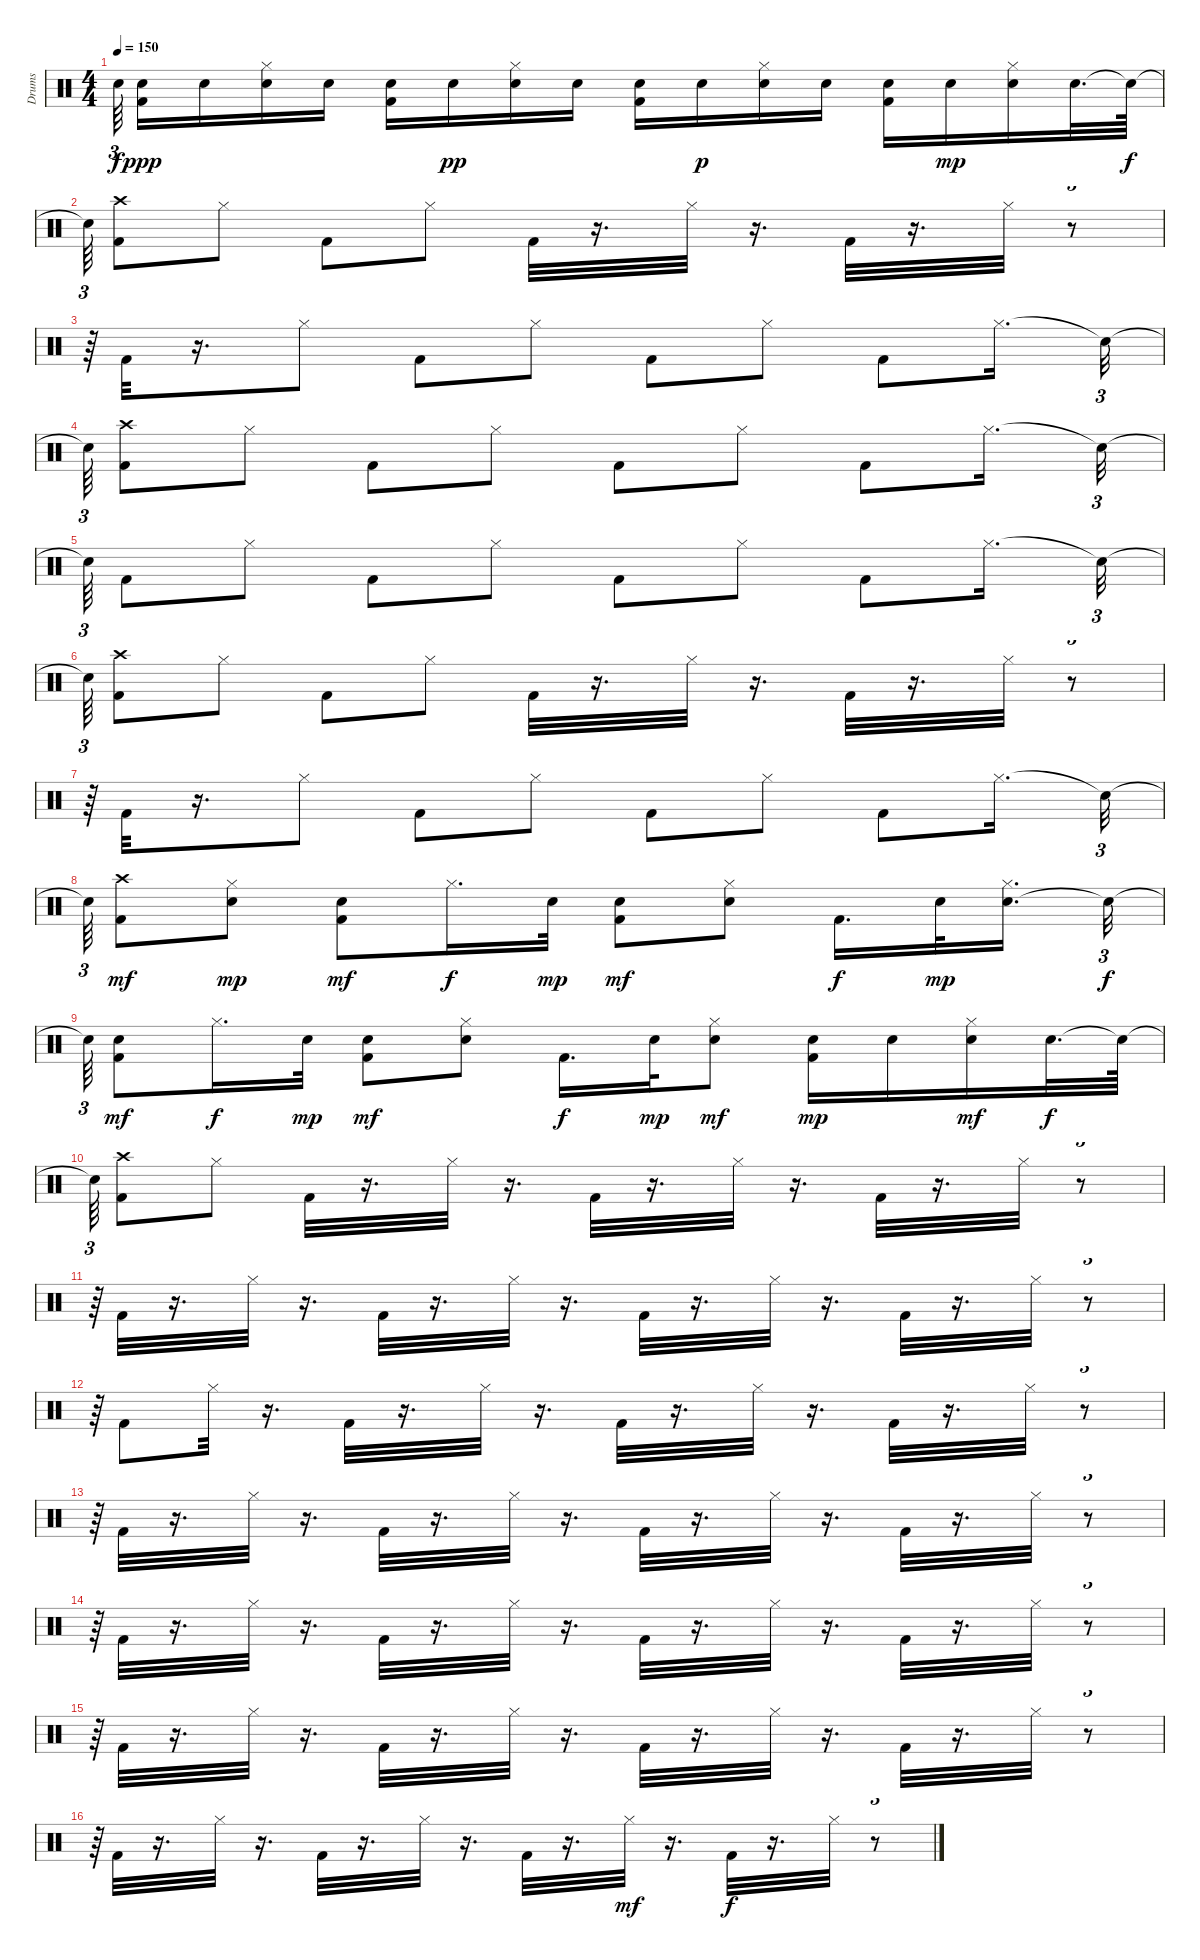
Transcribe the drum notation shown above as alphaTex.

\track ("Drums" "Drums") {instrument percussion}
\staff {score}
\articulation defaults
\ts (4 4)
\tempo 150
\clef neutral
\ks c "Snare (hit)"{t}.64{tu (3 2) dy f}
("Kick (hit) 2" "Electric Snare (hit)").16{dy ppp} "Electric Snare (hit)".16 ("Hi-Hat (closed)" "Electric Snare (hit)").16 "Electric Snare (hit)".16 ("Kick (hit) 2" "Electric Snare (hit)").16 "Electric Snare (hit)".16{dy pp} ("Hi-Hat (closed)" "Electric Snare (hit)").16 "Electric Snare (hit)".16 ("Kick (hit) 2" "Electric Snare (hit)").16 "Electric Snare (hit)".16{dy p} ("Hi-Hat (closed)" "Electric Snare (hit)").16 "Electric Snare (hit)".16 ("Kick (hit) 2" "Electric Snare (hit)").16 "Electric Snare (hit)".16{dy mp} ("Hi-Hat (closed)" "Electric Snare (hit)").16 "Electric Snare (hit)".32{d} "Snare (hit)"{t}.64{dy f} |
"Snare (hit)"{t}.64{tu (3 2)} ("Crash high (hit)" "Kick (hit) 2").8 "Hi-Hat (closed)".8 "Kick (hit) 2".8 "Hi-Hat (closed)".8 "Kick (hit) 2".32 r.16{d} "Hi-Hat (closed)".32 r.16{d} "Kick (hit) 2".32 r.16{d} "Hi-Hat (closed)".32 r.8{tu (3 2)} |
r.64{tu (3 2)} "Kick (hit) 2".32 r.16{d} "Hi-Hat (closed)".8 "Kick (hit) 2".8 "Hi-Hat (closed)".8 "Kick (hit) 2".8 "Hi-Hat (closed)".8 "Kick (hit) 2".8 "Hi-Hat (closed)".16{d} "Snare (hit)"{t}.32{tu (3 2)} |
"Snare (hit)"{t}.64{tu (3 2)} ("Crash high (hit)" "Kick (hit) 2").8 "Hi-Hat (closed)".8 "Kick (hit) 2".8 "Hi-Hat (closed)".8 "Kick (hit) 2".8 "Hi-Hat (closed)".8 "Kick (hit) 2".8 "Hi-Hat (closed)".16{d} "Snare (hit)"{t}.32{tu (3 2)} |
"Snare (hit)"{t}.64{tu (3 2)} "Kick (hit) 2".8 "Hi-Hat (closed)".8 "Kick (hit) 2".8 "Hi-Hat (closed)".8 "Kick (hit) 2".8 "Hi-Hat (closed)".8 "Kick (hit) 2".8 "Hi-Hat (closed)".16{d} "Snare (hit)"{t}.32{tu (3 2)} |
"Snare (hit)"{t}.64{tu (3 2)} ("Crash high (hit)" "Kick (hit) 2").8 "Hi-Hat (closed)".8 "Kick (hit) 2".8 "Hi-Hat (closed)".8 "Kick (hit) 2".32 r.16{d} "Hi-Hat (closed)".32 r.16{d} "Kick (hit) 2".32 r.16{d} "Hi-Hat (closed)".32 r.8{tu (3 2)} |
r.64{tu (3 2)} "Kick (hit) 2".32 r.16{d} "Hi-Hat (closed)".8 "Kick (hit) 2".8 "Hi-Hat (closed)".8 "Kick (hit) 2".8 "Hi-Hat (closed)".8 "Kick (hit) 2".8 "Hi-Hat (closed)".16{d} "Snare (hit)"{t}.32{tu (3 2)} |
"Snare (hit)"{t}.64{tu (3 2)} ("Crash high (hit)" "Kick (hit) 2").8{dy mf} ("Electric Snare (hit)" "Hi-Hat (closed)").8{dy mp} ("Electric Snare (hit)" "Kick (hit) 2").8{dy mf} "Hi-Hat (closed)".16{d dy f} "Electric Snare (hit)".32{dy mp} ("Electric Snare (hit)" "Kick (hit) 2").8{dy mf} ("Electric Snare (hit)" "Hi-Hat (closed)").8 "Kick (hit) 2".16{d dy f} "Electric Snare (hit)".32{dy mp} ("Electric Snare (hit)" "Hi-Hat (closed)").16{d} "Snare (hit)"{t}.32{tu (3 2) dy f} |
"Snare (hit)"{t}.64{tu (3 2)} ("Electric Snare (hit)" "Kick (hit) 2").8{dy mf} "Hi-Hat (closed)".16{d dy f} "Electric Snare (hit)".32{dy mp} ("Electric Snare (hit)" "Kick (hit) 2").8{dy mf} ("Electric Snare (hit)" "Hi-Hat (closed)").8 "Kick (hit) 2".16{d dy f} "Electric Snare (hit)".32{dy mp} ("Electric Snare (hit)" "Hi-Hat (closed)").8{dy mf} ("Electric Snare (hit)" "Kick (hit) 2").16{dy mp} "Electric Snare (hit)".16 ("Electric Snare (hit)" "Hi-Hat (closed)").16{dy mf} "Electric Snare (hit)".32{d dy f} "Snare (hit)"{t}.64 |
"Snare (hit)"{t}.64{tu (3 2)} ("Kick (hit) 2" "Crash high (hit)").8 "Hi-Hat (closed)".8 "Kick (hit) 2".32 r.16{d} "Hi-Hat (closed)".32 r.16{d} "Kick (hit) 2".32 r.16{d} "Hi-Hat (closed)".32 r.16{d} "Kick (hit) 2".32 r.16{d} "Hi-Hat (closed)".32 r.8{tu (3 2)} |
r.64{tu (3 2)} "Kick (hit) 2".32 r.16{d} "Hi-Hat (closed)".32 r.16{d} "Kick (hit) 2".32 r.16{d} "Hi-Hat (closed)".32 r.16{d} "Kick (hit) 2".32 r.16{d} "Hi-Hat (closed)".32 r.16{d} "Kick (hit) 2".32 r.16{d} "Hi-Hat (closed)".32 r.8{tu (3 2)} |
r.64{tu (3 2)} "Kick (hit) 2".8 "Hi-Hat (closed)".32 r.16{d} "Kick (hit) 2".32 r.16{d} "Hi-Hat (closed)".32 r.16{d} "Kick (hit) 2".32 r.16{d} "Hi-Hat (closed)".32 r.16{d} "Kick (hit) 2".32 r.16{d} "Hi-Hat (closed)".32 r.8{tu (3 2)} |
r.64{tu (3 2)} "Kick (hit) 2".32 r.16{d} "Hi-Hat (closed)".32 r.16{d} "Kick (hit) 2".32 r.16{d} "Hi-Hat (closed)".32 r.16{d} "Kick (hit) 2".32 r.16{d} "Hi-Hat (closed)".32 r.16{d} "Kick (hit) 2".32 r.16{d} "Hi-Hat (closed)".32 r.8{tu (3 2)} |
r.64{tu (3 2)} "Kick (hit) 2".32 r.16{d} "Hi-Hat (closed)".32 r.16{d} "Kick (hit) 2".32 r.16{d} "Hi-Hat (closed)".32 r.16{d} "Kick (hit) 2".32 r.16{d} "Hi-Hat (closed)".32 r.16{d} "Kick (hit) 2".32 r.16{d} "Hi-Hat (closed)".32 r.8{tu (3 2)} |
r.64{tu (3 2)} "Kick (hit) 2".32 r.16{d} "Hi-Hat (closed)".32 r.16{d} "Kick (hit) 2".32 r.16{d} "Hi-Hat (closed)".32 r.16{d} "Kick (hit) 2".32 r.16{d} "Hi-Hat (closed)".32 r.16{d} "Kick (hit) 2".32 r.16{d} "Hi-Hat (closed)".32 r.8{tu (3 2)} |
r.64{tu (3 2)} "Kick (hit) 2".32 r.16{d} "Hi-Hat (closed)".32 r.16{d} "Kick (hit) 2".32 r.16{d} "Hi-Hat (closed)".32 r.16{d} "Kick (hit) 2".32 r.16{d} "Hi-Hat (closed)".32{dy mf} r.16{d} "Kick (hit) 2".32{dy f} r.16{d} "Hi-Hat (closed)".32 r.8{tu (3 2)}
